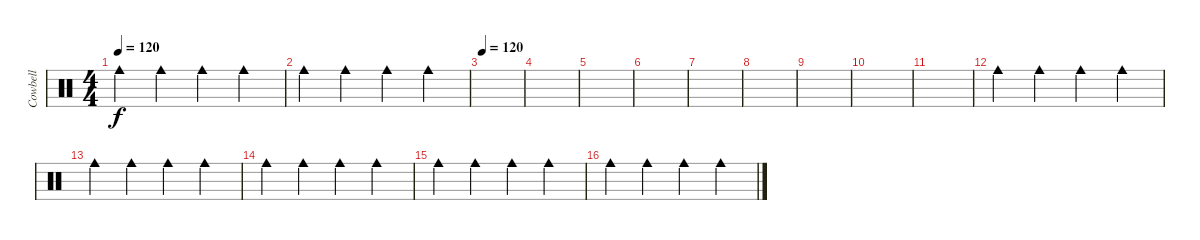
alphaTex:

\track ("Cowbell" "Cowbell") {instrument percussion}
\staff {score}
\articulation defaults
\ts (4 4)
\tempo 120
\clef neutral
\ks c "Cowbell medium (hit)".4{dy f} "Cowbell medium (hit)".4 "Cowbell medium (hit)".4 "Cowbell medium (hit)".4
|
"Cowbell medium (hit)".4 "Cowbell medium (hit)".4 "Cowbell medium (hit)".4 "Cowbell medium (hit)".4 |
\tempo 120
|
|
|
|
|
|
|
|
|
"Cowbell medium (hit)".4 "Cowbell medium (hit)".4 "Cowbell medium (hit)".4 "Cowbell medium (hit)".4 |
"Cowbell medium (hit)".4 "Cowbell medium (hit)".4 "Cowbell medium (hit)".4 "Cowbell medium (hit)".4 |
"Cowbell medium (hit)".4 "Cowbell medium (hit)".4 "Cowbell medium (hit)".4 "Cowbell medium (hit)".4 |
"Cowbell medium (hit)".4 "Cowbell medium (hit)".4 "Cowbell medium (hit)".4 "Cowbell medium (hit)".4 |
"Cowbell medium (hit)".4 "Cowbell medium (hit)".4 "Cowbell medium (hit)".4 "Cowbell medium (hit)".4
